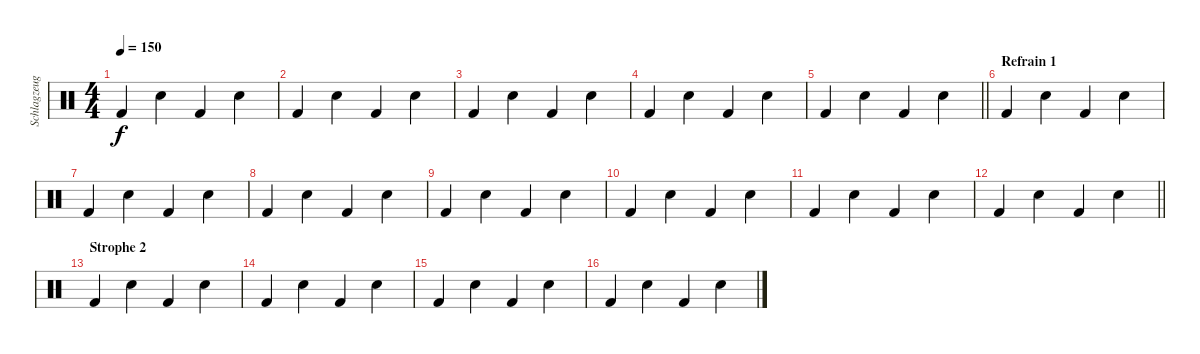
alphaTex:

\track ("Schlagzeug" "Schlagzeug") {instrument percussion}
\staff {score}
\articulation defaults
\ts (4 4)
\tempo 150
\clef neutral
\ks c "Kick (hit) 2".4{dy f} "Electric Snare (hit)".4 "Kick (hit) 2".4 "Electric Snare (hit)".4
|
"Kick (hit) 2".4 "Electric Snare (hit)".4 "Kick (hit) 2".4 "Electric Snare (hit)".4 |
"Kick (hit) 2".4 "Electric Snare (hit)".4 "Kick (hit) 2".4 "Electric Snare (hit)".4 |
"Kick (hit) 2".4 "Electric Snare (hit)".4 "Kick (hit) 2".4 "Electric Snare (hit)".4 |
\barLineRight lightlight "Kick (hit) 2".4 "Electric Snare (hit)".4 "Kick (hit) 2".4 "Electric Snare (hit)".4
|
\section ("" "Refrain 1")
"Kick (hit) 2".4 "Electric Snare (hit)".4 "Kick (hit) 2".4 "Electric Snare (hit)".4 |
"Kick (hit) 2".4 "Electric Snare (hit)".4 "Kick (hit) 2".4 "Electric Snare (hit)".4 |
"Kick (hit) 2".4 "Electric Snare (hit)".4 "Kick (hit) 2".4 "Electric Snare (hit)".4 |
"Kick (hit) 2".4 "Electric Snare (hit)".4 "Kick (hit) 2".4 "Electric Snare (hit)".4 |
"Kick (hit) 2".4 "Electric Snare (hit)".4 "Kick (hit) 2".4 "Electric Snare (hit)".4 |
"Kick (hit) 2".4 "Electric Snare (hit)".4 "Kick (hit) 2".4 "Electric Snare (hit)".4 |
\barLineRight lightlight "Kick (hit) 2".4 "Electric Snare (hit)".4 "Kick (hit) 2".4 "Electric Snare (hit)".4
|
\section ("" "Strophe 2")
"Kick (hit) 2".4 "Electric Snare (hit)".4 "Kick (hit) 2".4 "Electric Snare (hit)".4 |
"Kick (hit) 2".4 "Electric Snare (hit)".4 "Kick (hit) 2".4 "Electric Snare (hit)".4 |
"Kick (hit) 2".4 "Electric Snare (hit)".4 "Kick (hit) 2".4 "Electric Snare (hit)".4 |
"Kick (hit) 2".4 "Electric Snare (hit)".4 "Kick (hit) 2".4 "Electric Snare (hit)".4
